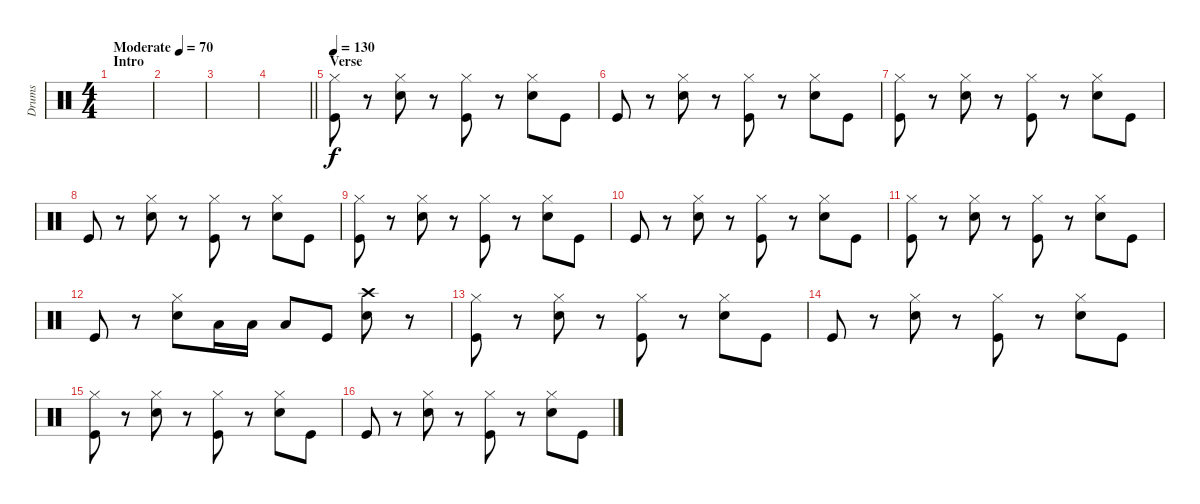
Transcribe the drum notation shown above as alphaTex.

\track ("Drums" "Drums") {instrument percussion}
\staff {score}
\articulation defaults
\ts (4 4)
\section ("" "Intro")
\tempo (70 "Moderate")
\clef neutral
\ks c
|
|
|
\barLineRight lightlight
|
\section ("" "Verse")
\tempo 130
("Kick (hit)" "Hi-Hat (closed)").8 r.8 ("Electric Snare (hit)" "Hi-Hat (closed)").8 r.8 ("Kick (hit)" "Hi-Hat (closed)").8 r.8 ("Hi-Hat (closed)" "Electric Snare (hit)").8 "Kick (hit)".8 |
"Kick (hit)".8 r.8 ("Hi-Hat (closed)" "Electric Snare (hit)").8 r.8 ("Hi-Hat (closed)" "Kick (hit)").8 r.8 ("Electric Snare (hit)" "Hi-Hat (closed)").8 "Kick (hit)".8 |
("Kick (hit)" "Hi-Hat (closed)").8 r.8 ("Electric Snare (hit)" "Hi-Hat (closed)").8 r.8 ("Kick (hit)" "Hi-Hat (closed)").8 r.8 ("Hi-Hat (closed)" "Electric Snare (hit)").8 "Kick (hit)".8 |
"Kick (hit)".8 r.8 ("Hi-Hat (closed)" "Electric Snare (hit)").8 r.8 ("Hi-Hat (closed)" "Kick (hit)").8 r.8 ("Electric Snare (hit)" "Hi-Hat (closed)").8 "Kick (hit)".8 |
("Kick (hit)" "Hi-Hat (closed)").8 r.8 ("Electric Snare (hit)" "Hi-Hat (closed)").8 r.8 ("Kick (hit)" "Hi-Hat (closed)").8 r.8 ("Hi-Hat (closed)" "Electric Snare (hit)").8 "Kick (hit)".8 |
"Kick (hit)".8 r.8 ("Hi-Hat (closed)" "Electric Snare (hit)").8 r.8 ("Hi-Hat (closed)" "Kick (hit)").8 r.8 ("Electric Snare (hit)" "Hi-Hat (closed)").8 "Kick (hit)".8 |
("Kick (hit)" "Hi-Hat (closed)").8 r.8 ("Electric Snare (hit)" "Hi-Hat (closed)").8 r.8 ("Kick (hit)" "Hi-Hat (closed)").8 r.8 ("Hi-Hat (closed)" "Electric Snare (hit)").8 "Kick (hit)".8 |
"Kick (hit)".8 r.8 ("Hi-Hat (closed)" "Electric Snare (hit)").8 "Low Tom (hit)".16 "Low Tom (hit)".16 "Low Tom (hit)".8 "Kick (hit)".8 ("Crash high (hit)" "Electric Snare (hit)").8 r.8 |
("Kick (hit)" "Hi-Hat (closed)").8 r.8 ("Electric Snare (hit)" "Hi-Hat (closed)").8 r.8 ("Kick (hit)" "Hi-Hat (closed)").8 r.8 ("Hi-Hat (closed)" "Electric Snare (hit)").8 "Kick (hit)".8 |
"Kick (hit)".8 r.8 ("Hi-Hat (closed)" "Electric Snare (hit)").8 r.8 ("Hi-Hat (closed)" "Kick (hit)").8 r.8 ("Electric Snare (hit)" "Hi-Hat (closed)").8 "Kick (hit)".8 |
("Kick (hit)" "Hi-Hat (closed)").8 r.8 ("Electric Snare (hit)" "Hi-Hat (closed)").8 r.8 ("Kick (hit)" "Hi-Hat (closed)").8 r.8 ("Hi-Hat (closed)" "Electric Snare (hit)").8 "Kick (hit)".8 |
"Kick (hit)".8 r.8 ("Hi-Hat (closed)" "Electric Snare (hit)").8 r.8 ("Hi-Hat (closed)" "Kick (hit)").8 r.8 ("Electric Snare (hit)" "Hi-Hat (closed)").8 "Kick (hit)".8
